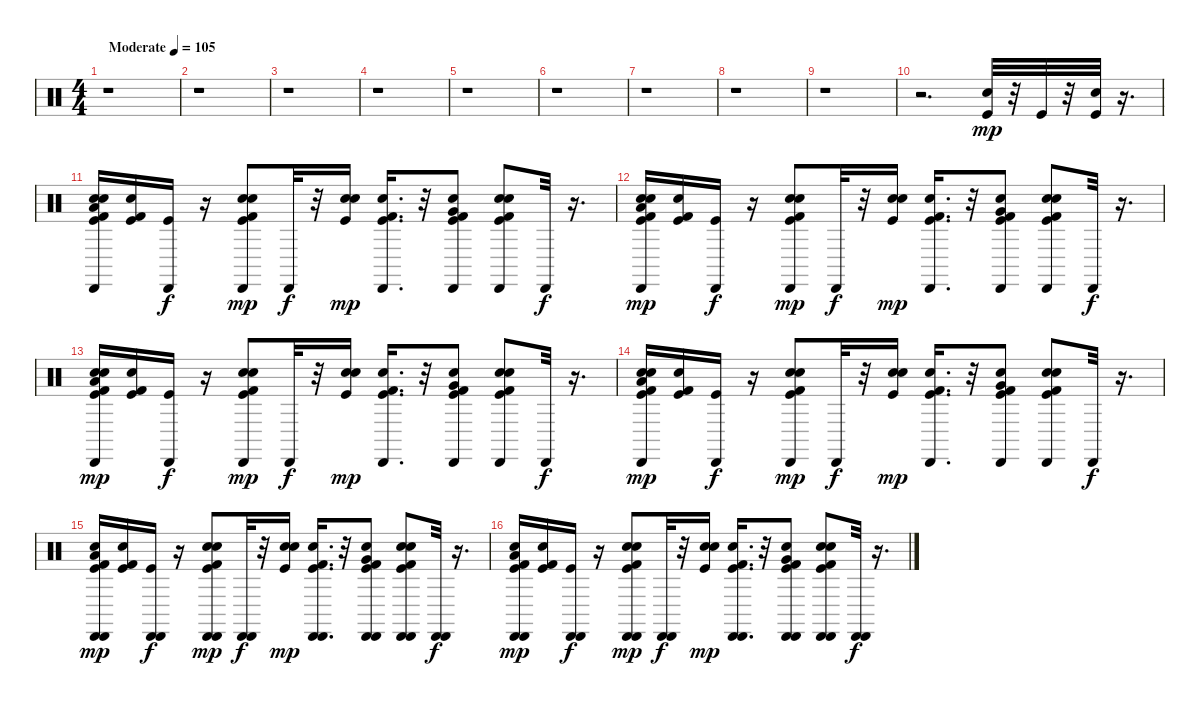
\track "" {instrument percussion}
\staff {score}
\articulation defaults
\ts (4 4)
\tempo (105 "Moderate")
\clef neutral
\ks c
r.1{dy mp} |
r.1 |
r.1 |
r.1 |
r.1 |
r.1 |
r.1 |
r.1 |
r.1 |
r.2{d} ("Hand Clap (hit)" "Kick (hit)").32 r.32 "Kick (hit)".32 r.32 ("Kick (hit)" "Hand Clap (hit)").32 r.16{d} |
("Kick (hit) 2" "Kick (hit)" "Cabasa (hit)" "Electric Snare (hit)" "Low Floor Tom (hit)" "Snare (hit) 2").16 ("Kick (hit) 2" "Snare (hit) 2" "Kick (hit)").16 ("Kick (hit)" "Cabasa (hit)").16{dy f} r.16 ("Hand Clap (hit)" "Cabasa (hit)" "Kick (hit) 2" "Kick (hit)" "Snare (hit) 2").8{dy mp} "Cabasa (hit)".32{dy f} r.32 ("Kick (hit)" "Snare (hit) 2" "Electric Snare (hit)").16{dy mp} ("Snare (hit) 2" "Kick (hit)" "Cabasa (hit)" "Kick (hit) 2").16{d} r.32 ("Kick (hit)" "Snare (hit) 2" "Kick (hit) 2" "Cabasa (hit)" "Very Low Tom (hit)").8 ("Snare (hit) 2" "Kick (hit)" "Hand Clap (hit)" "Cabasa (hit)" "Kick (hit) 2").8 "Cabasa (hit)".32{dy f} r.16{d} |
("Electric Snare (hit)" "Kick (hit) 2" "Kick (hit)" "Cabasa (hit)" "Low Floor Tom (hit)" "Snare (hit) 2").16{dy mp} ("Kick (hit) 2" "Kick (hit)" "Snare (hit) 2").16 ("Kick (hit)" "Cabasa (hit)").16{dy f} r.16 ("Hand Clap (hit)" "Snare (hit) 2" "Kick (hit)" "Cabasa (hit)" "Kick (hit) 2").8{dy mp} "Cabasa (hit)".32{dy f} r.32 ("Electric Snare (hit)" "Kick (hit)" "Snare (hit) 2").16{dy mp} ("Snare (hit) 2" "Kick (hit)" "Kick (hit) 2" "Cabasa (hit)").16{d} r.32 ("Very Low Tom (hit)" "Snare (hit) 2" "Kick (hit)" "Cabasa (hit)" "Kick (hit) 2").8 ("Hand Clap (hit)" "Kick (hit)" "Cabasa (hit)" "Snare (hit) 2" "Kick (hit) 2").8 "Cabasa (hit)".32{dy f} r.16{d} |
("Kick (hit) 2" "Kick (hit)" "Cabasa (hit)" "Electric Snare (hit)" "Low Floor Tom (hit)" "Snare (hit) 2").16{dy mp} ("Kick (hit) 2" "Snare (hit) 2" "Kick (hit)").16 ("Kick (hit)" "Cabasa (hit)").16{dy f} r.16 ("Hand Clap (hit)" "Cabasa (hit)" "Kick (hit) 2" "Kick (hit)" "Snare (hit) 2").8{dy mp} "Cabasa (hit)".32{dy f} r.32 ("Kick (hit)" "Snare (hit) 2" "Electric Snare (hit)").16{dy mp} ("Snare (hit) 2" "Kick (hit)" "Cabasa (hit)" "Kick (hit) 2").16{d} r.32 ("Kick (hit)" "Snare (hit) 2" "Kick (hit) 2" "Cabasa (hit)" "Very Low Tom (hit)").8 ("Snare (hit) 2" "Kick (hit)" "Hand Clap (hit)" "Cabasa (hit)" "Kick (hit) 2").8 "Cabasa (hit)".32{dy f} r.16{d} |
("Electric Snare (hit)" "Kick (hit) 2" "Kick (hit)" "Cabasa (hit)" "Low Floor Tom (hit)" "Snare (hit) 2").16{dy mp} ("Kick (hit) 2" "Kick (hit)" "Snare (hit) 2").16 ("Kick (hit)" "Cabasa (hit)").16{dy f} r.16 ("Hand Clap (hit)" "Snare (hit) 2" "Kick (hit)" "Cabasa (hit)" "Kick (hit) 2").8{dy mp} "Cabasa (hit)".32{dy f} r.32 ("Electric Snare (hit)" "Kick (hit)" "Snare (hit) 2").16{dy mp} ("Snare (hit) 2" "Kick (hit)" "Kick (hit) 2" "Cabasa (hit)").16{d} r.32 ("Very Low Tom (hit)" "Snare (hit) 2" "Kick (hit)" "Cabasa (hit)" "Kick (hit) 2").8 ("Hand Clap (hit)" "Kick (hit)" "Cabasa (hit)" "Snare (hit) 2" "Kick (hit) 2").8 "Cabasa (hit)".32{dy f} r.16{d} |
("Kick (hit) 2" "Kick (hit)" "Cabasa (hit)" "Electric Snare (hit)" "Low Floor Tom (hit)" "Cabasa (hit)").16{dy mp} ("Kick (hit) 2" "Kick (hit)" "Snare (hit) 2").16 ("Cabasa (hit)" "Kick (hit)" "Cabasa (hit)").16{dy f} r.16 ("Hand Clap (hit)" "Cabasa (hit)" "Snare (hit) 2" "Cabasa (hit)" "Kick (hit)" "Kick (hit) 2").8{dy mp} ("Cabasa (hit)" "Cabasa (hit)").32{dy f} r.32 ("Kick (hit)" "Snare (hit) 2" "Electric Snare (hit)").16{dy mp} ("Snare (hit) 2" "Kick (hit)" "Cabasa (hit)" "Cabasa (hit)" "Kick (hit) 2").16{d} r.32 ("Cabasa (hit)" "Very Low Tom (hit)" "Kick (hit)" "Snare (hit) 2" "Cabasa (hit)" "Kick (hit) 2").8 ("Kick (hit)" "Cabasa (hit)" "Hand Clap (hit)" "Snare (hit) 2" "Cabasa (hit)" "Kick (hit) 2").8 ("Cabasa (hit)" "Cabasa (hit)").32{dy f} r.16{d} |
("Cabasa (hit)" "Electric Snare (hit)" "Kick (hit) 2" "Kick (hit)" "Cabasa (hit)" "Low Floor Tom (hit)").16{dy mp} ("Kick (hit) 2" "Snare (hit) 2" "Kick (hit)").16 ("Cabasa (hit)" "Kick (hit)" "Cabasa (hit)").16{dy f} r.16 ("Hand Clap (hit)" "Snare (hit) 2" "Kick (hit)" "Cabasa (hit)" "Kick (hit) 2" "Cabasa (hit)").8{dy mp} ("Cabasa (hit)" "Cabasa (hit)").32{dy f} r.32 ("Snare (hit) 2" "Electric Snare (hit)" "Kick (hit)").16{dy mp} ("Kick (hit)" "Snare (hit) 2" "Cabasa (hit)" "Kick (hit) 2" "Cabasa (hit)").16{d} r.32 ("Very Low Tom (hit)" "Snare (hit) 2" "Cabasa (hit)" "Kick (hit) 2" "Kick (hit)" "Cabasa (hit)").8 ("Hand Clap (hit)" "Kick (hit)" "Kick (hit) 2" "Snare (hit) 2" "Cabasa (hit)" "Cabasa (hit)").8 ("Cabasa (hit)" "Cabasa (hit)").32{dy f} r.16{d}
